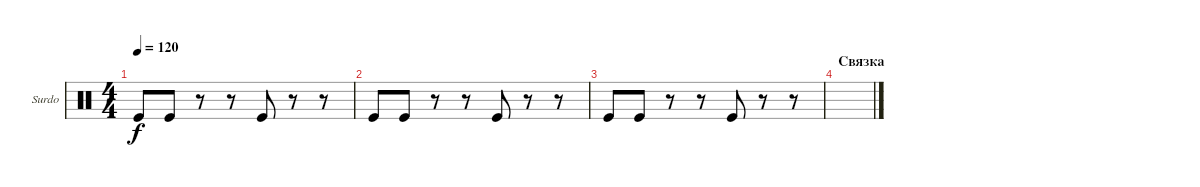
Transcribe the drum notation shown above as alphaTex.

\defaultSystemsLayout 4
\bracketExtendMode groupsimilarinstruments
\firstSystemTrackNameOrientation horizontal
\otherSystemsTrackNameOrientation horizontal
\track ("Surdo" "Surdo") {instrument percussion}
\staff {score}
\articulation defaults
\ts (4 4)
\tempo 120
\clef neutral
\ks c "Kick (hit)".8{dy f} "Kick (hit)".8
r.8 r.8 "Kick (hit)".8 r.8 r.8 |
"Kick (hit)".8 "Kick (hit)".8 r.8 r.8 "Kick (hit)".8 r.8 r.8 |
"Kick (hit)".8 "Kick (hit)".8 r.8 r.8 "Kick (hit)".8 r.8 r.8 |
\section ("" "Связка")
